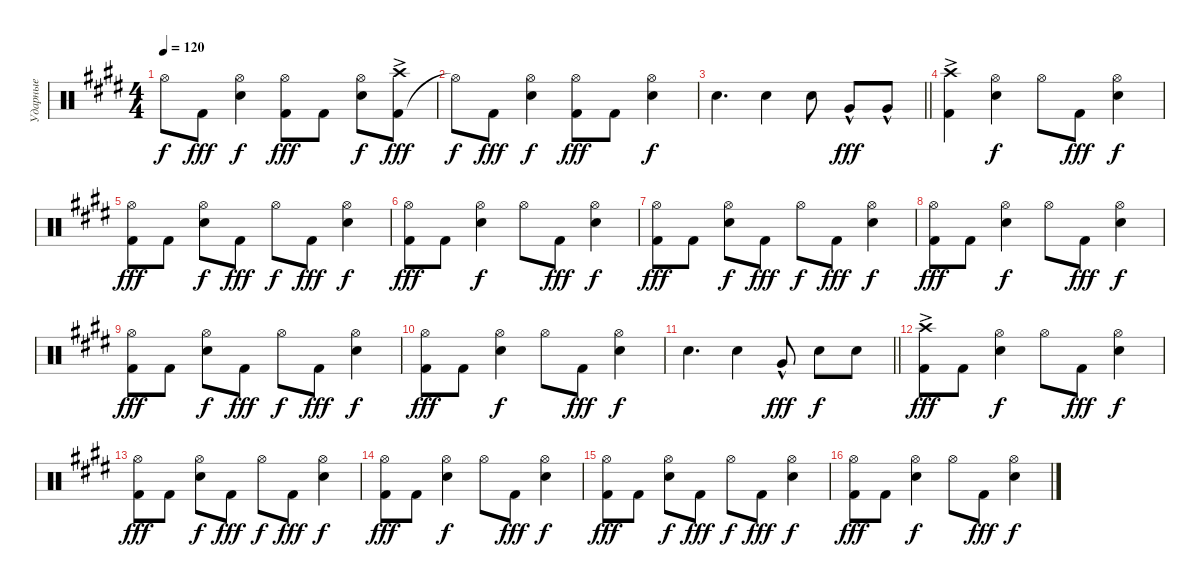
\track ("Ударные" "Ударные") {instrument percussion}
\staff {score}
\articulation defaults
\ts (4 4)
\tempo 120
\clef neutral
\ks e "Hi-Hat (open)"{t}.8{dy f} "Kick (hit) 2".8{dy fff}
("Snare (hit) 2" "Hi-Hat (open)").4{dy f} ("Kick (hit) 2" "Hi-Hat (open)").8{dy fff} "Kick (hit) 2".8 ("Snare (hit) 2" "Hi-Hat (open)").8{dy f} ("Kick (hit) 2" "Crash high (hit)"{ac}).8{dy fff} |
"Hi-Hat (open)"{t}.8{dy f} "Kick (hit) 2".8{dy fff} ("Snare (hit) 2" "Hi-Hat (open)").4{dy f} ("Kick (hit) 2" "Hi-Hat (open)").8{dy fff} "Kick (hit) 2".8 ("Snare (hit) 2" "Hi-Hat (open)").4{dy f} |
\barLineRight lightlight "Snare (hit) 2".4{d} "Snare (hit) 2".4 "Snare (hit) 2".8 "Very Low Tom (hit)"{hac}.8{dy fff} "Very Low Tom (hit)"{hac}.8
|
("Kick (hit) 2" "Crash high (hit)"{ac}).4 ("Snare (hit) 2" "Hi-Hat (open)").4{dy f} "Hi-Hat (open)".8 "Kick (hit) 2".8{dy fff} ("Snare (hit) 2" "Hi-Hat (open)").4{dy f} |
("Kick (hit) 2" "Hi-Hat (open)").8{dy fff} "Kick (hit) 2".8 ("Snare (hit) 2" "Hi-Hat (open)").8{dy f} "Kick (hit) 2".8{dy fff} "Hi-Hat (open)".8{dy f} "Kick (hit) 2".8{dy fff} ("Snare (hit) 2" "Hi-Hat (open)").4{dy f} |
("Kick (hit) 2" "Hi-Hat (open)").8{dy fff} "Kick (hit) 2".8 ("Snare (hit) 2" "Hi-Hat (open)").4{dy f} "Hi-Hat (open)".8 "Kick (hit) 2".8{dy fff} ("Snare (hit) 2" "Hi-Hat (open)").4{dy f} |
("Kick (hit) 2" "Hi-Hat (open)").8{dy fff} "Kick (hit) 2".8 ("Snare (hit) 2" "Hi-Hat (open)").8{dy f} "Kick (hit) 2".8{dy fff} "Hi-Hat (open)".8{dy f} "Kick (hit) 2".8{dy fff} ("Snare (hit) 2" "Hi-Hat (open)").4{dy f} |
("Kick (hit) 2" "Hi-Hat (open)").8{dy fff} "Kick (hit) 2".8 ("Snare (hit) 2" "Hi-Hat (open)").4{dy f} "Hi-Hat (open)".8 "Kick (hit) 2".8{dy fff} ("Snare (hit) 2" "Hi-Hat (open)").4{dy f} |
("Kick (hit) 2" "Hi-Hat (open)").8{dy fff} "Kick (hit) 2".8 ("Snare (hit) 2" "Hi-Hat (open)").8{dy f} "Kick (hit) 2".8{dy fff} "Hi-Hat (open)".8{dy f} "Kick (hit) 2".8{dy fff} ("Snare (hit) 2" "Hi-Hat (open)").4{dy f} |
("Kick (hit) 2" "Hi-Hat (open)").8{dy fff} "Kick (hit) 2".8 ("Snare (hit) 2" "Hi-Hat (open)").4{dy f} "Hi-Hat (open)".8 "Kick (hit) 2".8{dy fff} ("Snare (hit) 2" "Hi-Hat (open)").4{dy f} |
\barLineRight lightlight "Snare (hit) 2".4{d} "Snare (hit) 2".4 "Very Low Tom (hit)"{hac}.8{dy fff} "Snare (hit) 2".8{dy f} "Snare (hit) 2".8
|
("Kick (hit) 2" "Crash high (hit)"{ac}).8{dy fff} "Kick (hit) 2".8 ("Snare (hit) 2" "Hi-Hat (open)").4{dy f} "Hi-Hat (open)".8 "Kick (hit) 2".8{dy fff} ("Snare (hit) 2" "Hi-Hat (open)").4{dy f} |
("Kick (hit) 2" "Hi-Hat (open)").8{dy fff} "Kick (hit) 2".8 ("Snare (hit) 2" "Hi-Hat (open)").8{dy f} "Kick (hit) 2".8{dy fff} "Hi-Hat (open)".8{dy f} "Kick (hit) 2".8{dy fff} ("Snare (hit) 2" "Hi-Hat (open)").4{dy f} |
("Kick (hit) 2" "Hi-Hat (open)").8{dy fff} "Kick (hit) 2".8 ("Snare (hit) 2" "Hi-Hat (open)").4{dy f} "Hi-Hat (open)".8 "Kick (hit) 2".8{dy fff} ("Snare (hit) 2" "Hi-Hat (open)").4{dy f} |
("Kick (hit) 2" "Hi-Hat (open)").8{dy fff} "Kick (hit) 2".8 ("Snare (hit) 2" "Hi-Hat (open)").8{dy f} "Kick (hit) 2".8{dy fff} "Hi-Hat (open)".8{dy f} "Kick (hit) 2".8{dy fff} ("Snare (hit) 2" "Hi-Hat (open)").4{dy f} |
("Kick (hit) 2" "Hi-Hat (open)").8{dy fff} "Kick (hit) 2".8 ("Snare (hit) 2" "Hi-Hat (open)").4{dy f} "Hi-Hat (open)".8 "Kick (hit) 2".8{dy fff} ("Snare (hit) 2" "Hi-Hat (open)").4{dy f}
